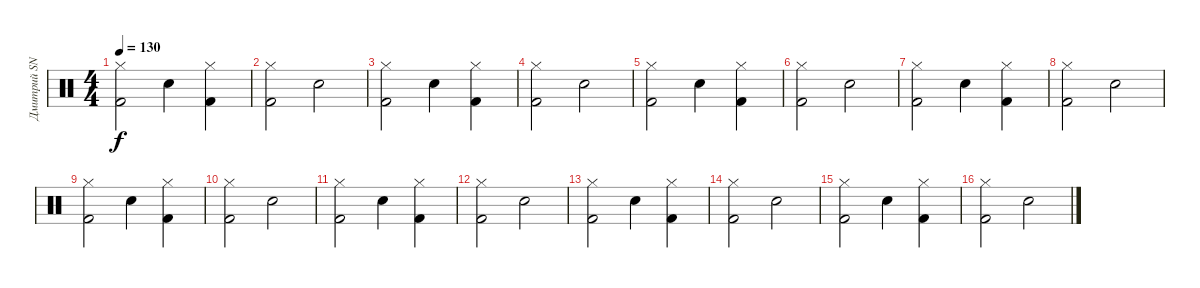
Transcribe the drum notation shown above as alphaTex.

\track ("Дмитрий SNAKE Хакимов" "Дмитрий SN") {instrument percussion}
\staff {score}
\articulation defaults
\ts (4 4)
\tempo 130
\clef neutral
\ks c
("Hi-Hat (closed)" "Kick (hit) 2").2{dy f} "Hand Clap (hit)".4 ("Hi-Hat (closed)" "Kick (hit) 2").4 |
("Hi-Hat (closed)" "Kick (hit) 2").2 "Hand Clap (hit)".2 |
("Hi-Hat (closed)" "Kick (hit) 2").2 "Hand Clap (hit)".4 ("Hi-Hat (closed)" "Kick (hit) 2").4 |
("Hi-Hat (closed)" "Kick (hit) 2").2 "Hand Clap (hit)".2 |
("Hi-Hat (closed)" "Kick (hit) 2").2 "Hand Clap (hit)".4 ("Hi-Hat (closed)" "Kick (hit) 2").4 |
("Hi-Hat (closed)" "Kick (hit) 2").2 "Hand Clap (hit)".2 |
("Hi-Hat (closed)" "Kick (hit) 2").2 "Hand Clap (hit)".4 ("Hi-Hat (closed)" "Kick (hit) 2").4 |
("Hi-Hat (closed)" "Kick (hit) 2").2 "Hand Clap (hit)".2 |
("Hi-Hat (closed)" "Kick (hit) 2").2 "Hand Clap (hit)".4 ("Hi-Hat (closed)" "Kick (hit) 2").4 |
("Hi-Hat (closed)" "Kick (hit) 2").2 "Hand Clap (hit)".2 |
("Hi-Hat (closed)" "Kick (hit) 2").2 "Hand Clap (hit)".4 ("Hi-Hat (closed)" "Kick (hit) 2").4 |
("Hi-Hat (closed)" "Kick (hit) 2").2 "Hand Clap (hit)".2 |
("Hi-Hat (closed)" "Kick (hit) 2").2 "Hand Clap (hit)".4 ("Hi-Hat (closed)" "Kick (hit) 2").4 |
("Hi-Hat (closed)" "Kick (hit) 2").2 "Hand Clap (hit)".2 |
("Hi-Hat (closed)" "Kick (hit) 2").2 "Hand Clap (hit)".4 ("Hi-Hat (closed)" "Kick (hit) 2").4 |
("Hi-Hat (closed)" "Kick (hit) 2").2 "Hand Clap (hit)".2
